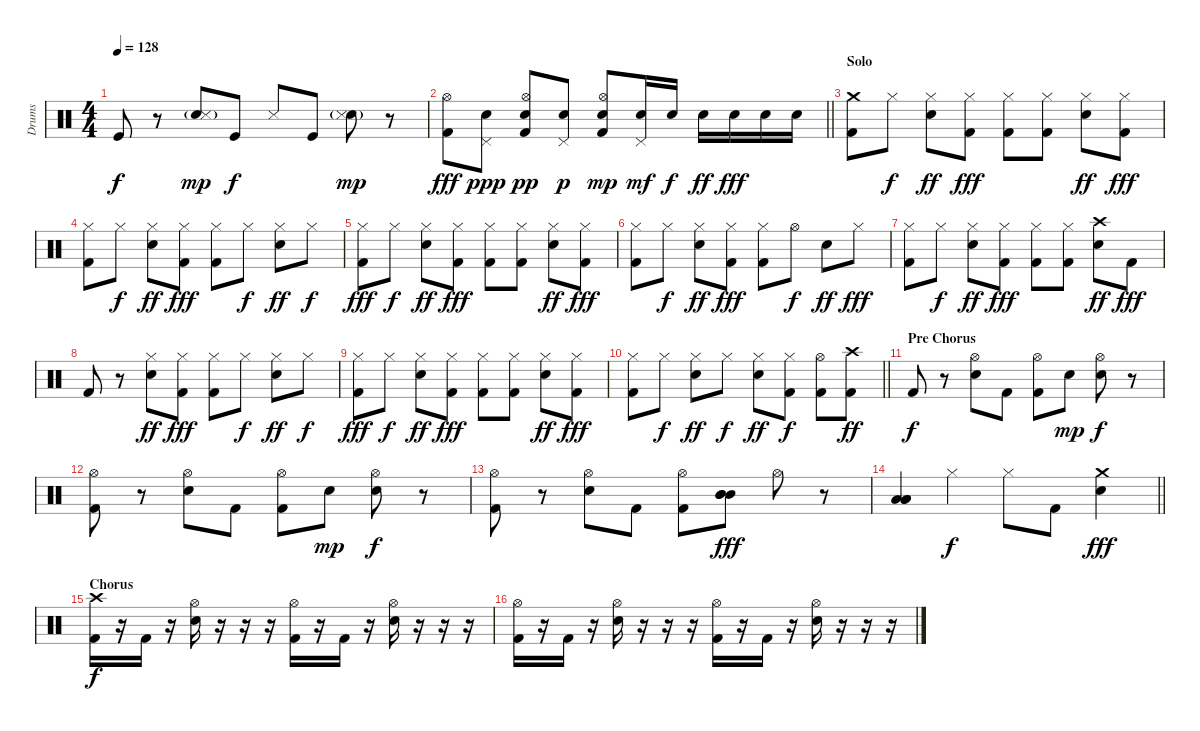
\track ("Drums" "Drums") {instrument percussion}
\staff {score}
\articulation defaults
\ts (4 4)
\tempo 128
\clef neutral
\ks c "Kick (hit)".8{dy f}
r.8 ("Electric Snare (hit)"{g} "Snare (side stick) 3").8{dy mp} "Kick (hit)".8{dy f} "Snare (side stick) 3".8 "Kick (hit)".8 ("Electric Snare (hit)"{g} "Snare (side stick) 3").8{dy mp} r.8 |
\barLineRight lightlight
("Hi-Hat (open)" "Kick (hit) 2").8{dy fff} ("Electric Snare (hit)" "Pedal Hi-Hat (hit)").8{dy ppp} ("Hi-Hat (open)" "Electric Snare (hit)" "Kick (hit) 2").8{dy pp} ("Electric Snare (hit)" "Pedal Hi-Hat (hit)").8{dy p} ("Hi-Hat (open)" "Electric Snare (hit)" "Kick (hit) 2").8{dy mp} ("Electric Snare (hit)" "Pedal Hi-Hat (hit)").16{dy mf} "Electric Snare (hit)".16{dy f} "Electric Snare (hit)".16{dy ff} "Electric Snare (hit)".16{dy fff} "Electric Snare (hit)".16 "Electric Snare (hit)".16 |
\section ("" "Solo")
("Crash medium (hit)" "Kick (hit) 2").8 "Hi-Hat (closed)".8{dy f} ("Hi-Hat (closed)" "Electric Snare (hit)").8{dy ff} ("Hi-Hat (closed)" "Kick (hit) 2").8{dy fff} ("Hi-Hat (closed)" "Kick (hit) 2").8 ("Hi-Hat (closed)" "Kick (hit) 2").8 ("Hi-Hat (closed)" "Electric Snare (hit)").8{dy ff} ("Hi-Hat (closed)" "Kick (hit) 2").8{dy fff} |
("Hi-Hat (closed)" "Kick (hit) 2").8 "Hi-Hat (closed)".8{dy f} ("Hi-Hat (closed)" "Electric Snare (hit)").8{dy ff} ("Hi-Hat (closed)" "Kick (hit) 2").8{dy fff} ("Hi-Hat (closed)" "Kick (hit) 2").8 "Hi-Hat (closed)".8{dy f} ("Hi-Hat (closed)" "Electric Snare (hit)").8{dy ff} "Hi-Hat (closed)".8{dy f} |
("Hi-Hat (closed)" "Kick (hit) 2").8{dy fff} "Hi-Hat (closed)".8{dy f} ("Hi-Hat (closed)" "Electric Snare (hit)").8{dy ff} ("Hi-Hat (closed)" "Kick (hit) 2").8{dy fff} ("Hi-Hat (closed)" "Kick (hit) 2").8 ("Hi-Hat (closed)" "Kick (hit) 2").8 ("Hi-Hat (closed)" "Electric Snare (hit)").8{dy ff} ("Hi-Hat (closed)" "Kick (hit) 2").8{dy fff} |
("Hi-Hat (closed)" "Kick (hit) 2").8 "Hi-Hat (closed)".8{dy f} ("Hi-Hat (closed)" "Electric Snare (hit)").8{dy ff} ("Hi-Hat (closed)" "Kick (hit) 2").8{dy fff} ("Hi-Hat (closed)" "Kick (hit) 2").8 "Hi-Hat (open)".8{dy f} "Electric Snare (hit)".8{dy ff} "Hi-Hat (closed)".8{dy fff} |
("Hi-Hat (closed)" "Kick (hit) 2").8 "Hi-Hat (closed)".8{dy f} ("Hi-Hat (closed)" "Electric Snare (hit)").8{dy ff} ("Hi-Hat (closed)" "Kick (hit) 2").8{dy fff} ("Hi-Hat (closed)" "Kick (hit) 2").8 ("Hi-Hat (closed)" "Kick (hit) 2").8 ("Crash high (hit)" "Electric Snare (hit)").8{dy ff} "Kick (hit) 2".8{dy fff} |
"Kick (hit) 2".8 r.8 ("Hi-Hat (closed)" "Electric Snare (hit)").8{dy ff} ("Hi-Hat (closed)" "Kick (hit) 2").8{dy fff} ("Hi-Hat (closed)" "Kick (hit) 2").8 "Hi-Hat (closed)".8{dy f} ("Hi-Hat (closed)" "Electric Snare (hit)").8{dy ff} "Hi-Hat (closed)".8{dy f} |
("Hi-Hat (closed)" "Kick (hit) 2").8{dy fff} "Hi-Hat (closed)".8{dy f} ("Hi-Hat (closed)" "Electric Snare (hit)").8{dy ff} ("Hi-Hat (closed)" "Kick (hit) 2").8{dy fff} ("Hi-Hat (closed)" "Kick (hit) 2").8 ("Hi-Hat (closed)" "Kick (hit) 2").8 ("Hi-Hat (closed)" "Electric Snare (hit)").8{dy ff} ("Hi-Hat (closed)" "Kick (hit) 2").8{dy fff} |
\barLineRight lightlight
("Hi-Hat (closed)" "Kick (hit) 2").8 "Hi-Hat (closed)".8{dy f} ("Hi-Hat (closed)" "Electric Snare (hit)").8{dy ff} "Hi-Hat (closed)".8{dy f} ("Hi-Hat (closed)" "Electric Snare (hit)").8{dy ff} ("Hi-Hat (closed)" "Kick (hit) 2").8{dy f} ("Hi-Hat (open)" "Kick (hit) 2").8 ("Crash high (hit)" "Kick (hit) 2").8{dy ff} |
\section ("" "Pre Chorus")
"Kick (hit) 2".8{dy f} r.8 ("Hi-Hat (open)" "Electric Snare (hit)").8 "Kick (hit) 2".8 ("Hi-Hat (open)" "Kick (hit) 2").8 "Electric Snare (hit)".8{dy mp} ("Hi-Hat (open)" "Electric Snare (hit)").8{dy f} r.8 |
("Hi-Hat (open)" "Kick (hit) 2").8 r.8 ("Hi-Hat (open)" "Electric Snare (hit)").8 "Kick (hit) 2".8 ("Hi-Hat (open)" "Kick (hit) 2").8 "Electric Snare (hit)".8{dy mp} ("Hi-Hat (open)" "Electric Snare (hit)").8{dy f} r.8 |
("Hi-Hat (open)" "Kick (hit) 2").8 r.8 ("Hi-Hat (open)" "Electric Snare (hit)").8 "Kick (hit) 2".8 ("Hi-Hat (open)" "Kick (hit) 2").8 ("Mid Tom (hit)" "Mid Tom (hit)" "Mid Tom (hit)").8{dy fff} "Hi-Hat (open)".8 r.8 |
\barLineRight lightlight
("Low Tom (hit)" "Low Tom (hit)" "Low Tom (hit)").4 "Hi-Hat (closed)".4{dy f} "Hi-Hat (closed)".8 "Kick (hit) 2".8 ("Crash medium (hit)" "Electric Snare (hit)").4{dy fff} |
\section ("" "Chorus")
("Crash high (hit)" "Kick (hit) 2").16{dy f} r.16 "Kick (hit) 2".16 r.16 ("Hi-Hat (open)" "Electric Snare (hit)").16 r.16 r.16 r.16 ("Hi-Hat (open)" "Kick (hit) 2").16 r.16 "Kick (hit) 2".16 r.16 ("Hi-Hat (open)" "Electric Snare (hit)").16 r.16 r.16 r.16 |
("Hi-Hat (open)" "Kick (hit) 2").16 r.16 "Kick (hit) 2".16 r.16 ("Hi-Hat (open)" "Electric Snare (hit)").16 r.16 r.16 r.16 ("Hi-Hat (open)" "Kick (hit) 2").16 r.16 "Kick (hit) 2".16 r.16 ("Hi-Hat (open)" "Electric Snare (hit)").16 r.16 r.16 r.16
